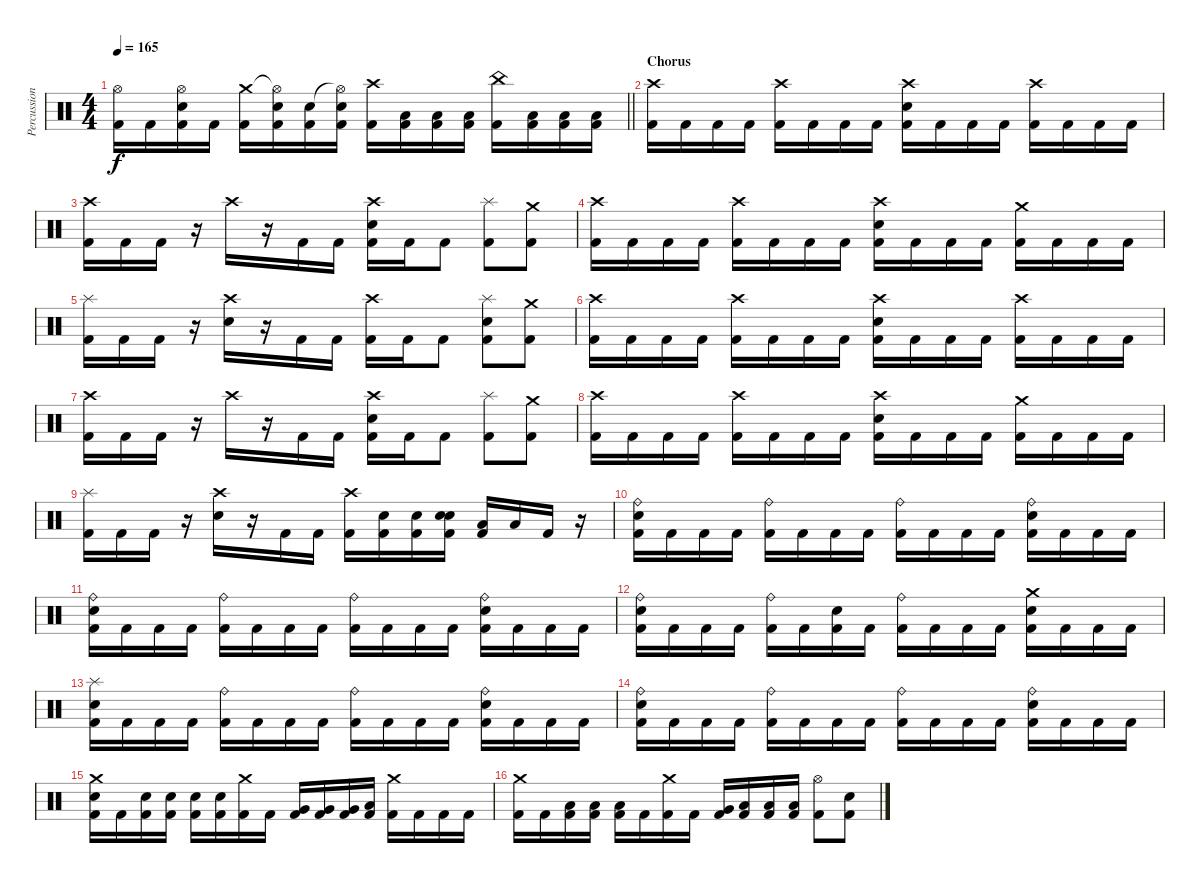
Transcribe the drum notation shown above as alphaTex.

\track ("Percussion" "Percussion") {instrument percussion}
\staff {score}
\articulation defaults
\ts (4 4)
\tempo 165
\clef neutral
\barLineRight lightlight
\ks c
("Hi-Hat (open)" "Kick (hit) 2").16{dy f} "Kick (hit) 2".16 ("Hi-Hat (open)" "Electric Snare (hit)" "Kick (hit) 2").16 "Kick (hit) 2".16 ("Crash medium (hit)" "Kick (hit) 2").16 ("Hi-Hat (open)"{t} "Electric Snare (hit)" "Kick (hit) 2").16 ("Electric Snare (hit)" "Kick (hit) 2").16 ("Hi-Hat (open)"{t} "Electric Snare (hit)" "Kick (hit) 2").16 ("Crash high (hit)" "Kick (hit) 2").16 ("Low Tom (hit)" "Kick (hit) 2").16 ("Low Tom (hit)" "Kick (hit) 2").16 ("Low Tom (hit)" "Kick (hit) 2").16 ("China (hit)" "Kick (hit) 2").16 ("Low Floor Tom (hit)" "Kick (hit) 2").16 ("Low Floor Tom (hit)" "Kick (hit) 2").16 ("Low Floor Tom (hit)" "Kick (hit) 2").16 |
\section ("" "Chorus")
("Crash high (hit)" "Kick (hit) 2").16 "Kick (hit) 2".16 "Kick (hit) 2".16 "Kick (hit) 2".16 ("Crash high (hit)" "Kick (hit) 2").16 "Kick (hit) 2".16 "Kick (hit) 2".16 "Kick (hit) 2".16 ("Crash high (hit)" "Electric Snare (hit)" "Kick (hit) 2").16 "Kick (hit) 2".16 "Kick (hit) 2".16 "Kick (hit) 2".16 ("Crash high (hit)" "Kick (hit) 2").16 "Kick (hit) 2".16 "Kick (hit) 2".16 "Kick (hit) 2".16 |
("Crash high (hit)" "Kick (hit) 2").16 "Kick (hit) 2".16 "Kick (hit) 2".16 r.16 "Crash high (hit)".16 r.16 "Kick (hit) 2".16 "Kick (hit) 2".16 ("Crash high (hit)" "Electric Snare (hit)" "Kick (hit) 2").16 "Kick (hit) 2".16 "Kick (hit) 2".8 ("Splash (hit)" "Kick (hit) 2").8 ("Crash medium (hit)" "Kick (hit) 2").8 |
("Crash high (hit)" "Kick (hit) 2").16 "Kick (hit) 2".16 "Kick (hit) 2".16 "Kick (hit) 2".16 ("Crash high (hit)" "Kick (hit) 2").16 "Kick (hit) 2".16 "Kick (hit) 2".16 "Kick (hit) 2".16 ("Crash high (hit)" "Electric Snare (hit)" "Kick (hit) 2").16 "Kick (hit) 2".16 "Kick (hit) 2".16 "Kick (hit) 2".16 ("Crash medium (hit)" "Kick (hit) 2").16 "Kick (hit) 2".16 "Kick (hit) 2".16 "Kick (hit) 2".16 |
("Splash (hit)" "Kick (hit) 2").16 "Kick (hit) 2".16 "Kick (hit) 2".16 r.16 ("Crash high (hit)" "Electric Snare (hit)").16 r.16 "Kick (hit) 2".16 "Kick (hit) 2".16 ("Crash high (hit)" "Kick (hit) 2").16 "Kick (hit) 2".16 "Kick (hit) 2".8 ("Splash (hit)" "Electric Snare (hit)" "Kick (hit) 2").8 ("Crash medium (hit)" "Kick (hit) 2").8 |
("Crash high (hit)" "Kick (hit) 2").16 "Kick (hit) 2".16 "Kick (hit) 2".16 "Kick (hit) 2".16 ("Crash high (hit)" "Kick (hit) 2").16 "Kick (hit) 2".16 "Kick (hit) 2".16 "Kick (hit) 2".16 ("Crash high (hit)" "Electric Snare (hit)" "Kick (hit) 2").16 "Kick (hit) 2".16 "Kick (hit) 2".16 "Kick (hit) 2".16 ("Crash high (hit)" "Kick (hit) 2").16 "Kick (hit) 2".16 "Kick (hit) 2".16 "Kick (hit) 2".16 |
("Crash high (hit)" "Kick (hit) 2").16 "Kick (hit) 2".16 "Kick (hit) 2".16 r.16 "Crash high (hit)".16 r.16 "Kick (hit) 2".16 "Kick (hit) 2".16 ("Crash high (hit)" "Electric Snare (hit)" "Kick (hit) 2").16 "Kick (hit) 2".16 "Kick (hit) 2".8 ("Splash (hit)" "Kick (hit) 2").8 ("Crash medium (hit)" "Kick (hit) 2").8 |
("Crash high (hit)" "Kick (hit) 2").16 "Kick (hit) 2".16 "Kick (hit) 2".16 "Kick (hit) 2".16 ("Crash high (hit)" "Kick (hit) 2").16 "Kick (hit) 2".16 "Kick (hit) 2".16 "Kick (hit) 2".16 ("Crash high (hit)" "Electric Snare (hit)" "Kick (hit) 2").16 "Kick (hit) 2".16 "Kick (hit) 2".16 "Kick (hit) 2".16 ("Crash medium (hit)" "Kick (hit) 2").16 "Kick (hit) 2".16 "Kick (hit) 2".16 "Kick (hit) 2".16 |
("Splash (hit)" "Kick (hit) 2").16 "Kick (hit) 2".16 "Kick (hit) 2".16 r.16 ("Crash high (hit)" "Electric Snare (hit)").16 r.16 "Kick (hit) 2".16 "Kick (hit) 2".16 ("Crash high (hit)" "Kick (hit) 2").16 ("Electric Snare (hit)" "Kick (hit) 2").16 ("Electric Snare (hit)" "Kick (hit) 2").16 ("Electric Snare (hit)" "Electric Snare (hit)" "Kick (hit) 2").16 ("Low Floor Tom (hit)" "Kick (hit) 2").16 "Low Floor Tom (hit)".16 "Kick (hit) 2".16 r.16 |
("Ride (bell)" "Electric Snare (hit)" "Kick (hit) 2").16 "Kick (hit) 2".16 "Kick (hit) 2".16 "Kick (hit) 2".16 ("Ride (bell)" "Kick (hit) 2").16 "Kick (hit) 2".16 "Kick (hit) 2".16 "Kick (hit) 2".16 ("Ride (bell)" "Kick (hit) 2").16 "Kick (hit) 2".16 "Kick (hit) 2".16 "Kick (hit) 2".16 ("Ride (bell)" "Electric Snare (hit)" "Kick (hit) 2").16 "Kick (hit) 2".16 "Kick (hit) 2".16 "Kick (hit) 2".16 |
("Ride (bell)" "Electric Snare (hit)" "Kick (hit) 2").16 "Kick (hit) 2".16 "Kick (hit) 2".16 "Kick (hit) 2".16 ("Ride (bell)" "Kick (hit) 2").16 "Kick (hit) 2".16 "Kick (hit) 2".16 "Kick (hit) 2".16 ("Ride (bell)" "Kick (hit) 2").16 "Kick (hit) 2".16 "Kick (hit) 2".16 "Kick (hit) 2".16 ("Ride (bell)" "Electric Snare (hit)" "Kick (hit) 2").16 "Kick (hit) 2".16 "Kick (hit) 2".16 "Kick (hit) 2".16 |
("Ride (bell)" "Electric Snare (hit)" "Kick (hit) 2").16 "Kick (hit) 2".16 "Kick (hit) 2".16 "Kick (hit) 2".16 ("Ride (bell)" "Kick (hit) 2").16 "Kick (hit) 2".16 ("Electric Snare (hit)" "Kick (hit) 2").16 "Kick (hit) 2".16 ("Ride (bell)" "Kick (hit) 2").16 "Kick (hit) 2".16 "Kick (hit) 2".16 "Kick (hit) 2".16 ("Crash medium (hit)" "Electric Snare (hit)" "Kick (hit) 2").16 "Kick (hit) 2".16 "Kick (hit) 2".16 "Kick (hit) 2".16 |
("Splash (hit)" "Electric Snare (hit)" "Kick (hit) 2").16 "Kick (hit) 2".16 "Kick (hit) 2".16 "Kick (hit) 2".16 ("Ride (bell)" "Kick (hit) 2").16 "Kick (hit) 2".16 "Kick (hit) 2".16 "Kick (hit) 2".16 ("Ride (bell)" "Kick (hit) 2").16 "Kick (hit) 2".16 "Kick (hit) 2".16 "Kick (hit) 2".16 ("Ride (bell)" "Electric Snare (hit)" "Kick (hit) 2").16 "Kick (hit) 2".16 "Kick (hit) 2".16 "Kick (hit) 2".16 |
("Ride (bell)" "Electric Snare (hit)" "Kick (hit) 2").16 "Kick (hit) 2".16 "Kick (hit) 2".16 "Kick (hit) 2".16 ("Ride (bell)" "Kick (hit) 2").16 "Kick (hit) 2".16 "Kick (hit) 2".16 "Kick (hit) 2".16 ("Ride (bell)" "Kick (hit) 2").16 "Kick (hit) 2".16 "Kick (hit) 2".16 "Kick (hit) 2".16 ("Ride (bell)" "Electric Snare (hit)" "Kick (hit) 2").16 "Kick (hit) 2".16 "Kick (hit) 2".16 "Kick (hit) 2".16 |
("Crash medium (hit)" "Electric Snare (hit)" "Kick (hit) 2").16 "Kick (hit) 2".16 ("Electric Snare (hit)" "Kick (hit) 2").16 ("Electric Snare (hit)" "Kick (hit) 2").16 ("Electric Snare (hit)" "Kick (hit) 2").16 ("Electric Snare (hit)" "Kick (hit) 2").16 ("Crash medium (hit)" "Kick (hit) 2").16 "Kick (hit) 2".16 ("Very Low Tom (hit)" "Kick (hit) 2").16 ("Very Low Tom (hit)" "Kick (hit) 2").16 ("Very Low Tom (hit)" "Kick (hit) 2").16 ("Low Floor Tom (hit)" "Kick (hit) 2").16 ("Crash medium (hit)" "Kick (hit) 2").16 "Kick (hit) 2".16 "Kick (hit) 2".16 "Kick (hit) 2".16 |
("Crash medium (hit)" "Kick (hit) 2").16 "Kick (hit) 2".16 ("Low Tom (hit)" "Kick (hit) 2").16 ("Low Tom (hit)" "Kick (hit) 2").16 ("Low Tom (hit)" "Kick (hit) 2").16 "Kick (hit) 2".16 ("Crash medium (hit)" "Kick (hit) 2").16 "Kick (hit) 2".16 ("Very Low Tom (hit)" "Kick (hit) 2").16 ("Low Floor Tom (hit)" "Kick (hit) 2").16 ("Low Floor Tom (hit)" "Kick (hit) 2").16 ("Low Floor Tom (hit)" "Kick (hit) 2").16 ("Hi-Hat (open)" "Kick (hit) 2").8 ("Electric Snare (hit)" "Kick (hit) 2").8
